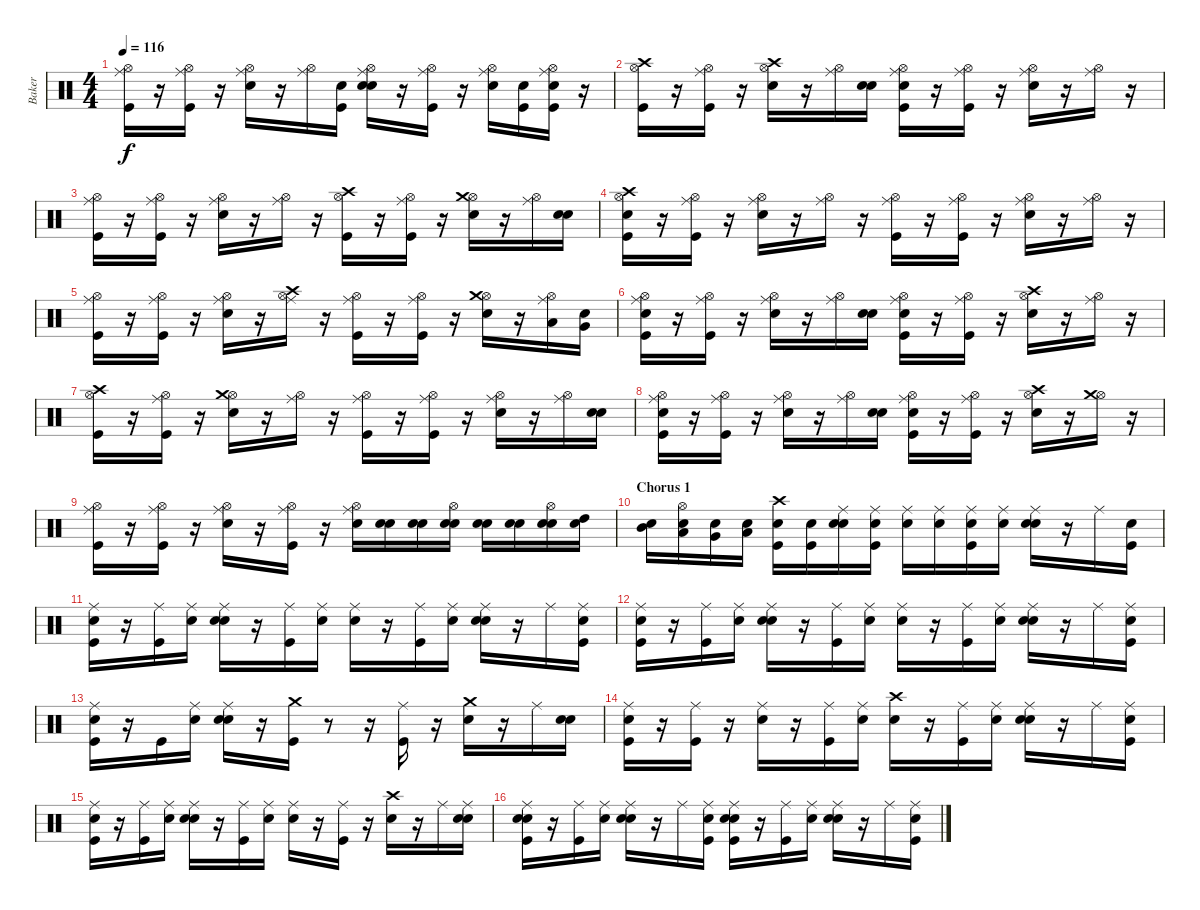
\track ("Baker" "Baker") {instrument percussion}
\staff {score}
\articulation defaults
\ts (4 4)
\tempo 116
\clef neutral
\ks c
("Kick (hit)" "Hi-Hat (open)" "Ride (middle)").16{dy f} r.16 ("Kick (hit)" "Hi-Hat (open)" "Ride (middle)").16 r.16 ("Electric Snare (hit)" "Hi-Hat (open)" "Ride (middle)").16 r.16 ("Hi-Hat (open)" "Ride (middle)").16 ("Snare (hit)" "Kick (hit)").16 ("Snare (hit)" "Electric Snare (hit)" "Hi-Hat (open)" "Ride (middle)").16 r.16 ("Kick (hit)" "Hi-Hat (open)" "Ride (middle)").16 r.16 ("Electric Snare (hit)" "Hi-Hat (open)" "Ride (middle)").16 ("Snare (hit)" "Kick (hit)").16 ("Snare (hit)" "Kick (hit)" "Hi-Hat (open)" "Ride (middle)").16 r.16 |
("Kick (hit)" "Hi-Hat (open)" "Crash high (hit)").16 r.16 ("Kick (hit)" "Hi-Hat (open)" "Ride (middle)").16 r.16 ("Electric Snare (hit)" "Hi-Hat (open)" "Crash high (hit)").16 r.16 ("Hi-Hat (open)" "Ride (middle)").16 ("Snare (hit)" "Electric Snare (hit)").16 ("Snare (hit)" "Kick (hit)" "Hi-Hat (open)" "Ride (middle)").16 r.16 ("Kick (hit)" "Hi-Hat (open)" "Ride (middle)").16 r.16 ("Electric Snare (hit)" "Hi-Hat (open)" "Ride (middle)").16 r.16 ("Hi-Hat (open)" "Ride (middle)").16 r.16 |
("Kick (hit)" "Hi-Hat (open)" "Ride (middle)").16 r.16 ("Kick (hit)" "Hi-Hat (open)" "Ride (middle)").16 r.16 ("Electric Snare (hit)" "Hi-Hat (open)" "Ride (middle)").16 r.16 ("Hi-Hat (open)" "Ride (middle)").16 r.16 ("Kick (hit)" "Hi-Hat (open)" "Crash high (hit)").16 r.16 ("Kick (hit)" "Hi-Hat (open)" "Ride (middle)").16 r.16 ("Electric Snare (hit)" "Hi-Hat (open)" "Crash medium (hit)").16 r.16 ("Hi-Hat (open)" "Ride (middle)").16 ("Snare (hit)" "Electric Snare (hit)").16 |
("Snare (hit)" "Kick (hit)" "Hi-Hat (open)" "Crash high (hit)").16 r.16 ("Kick (hit)" "Hi-Hat (open)" "Ride (middle)").16 r.16 ("Electric Snare (hit)" "Hi-Hat (open)" "Ride (middle)").16 r.16 ("Hi-Hat (open)" "Ride (middle)").16 r.16 ("Kick (hit)" "Hi-Hat (open)" "Ride (middle)").16 r.16 ("Kick (hit)" "Hi-Hat (open)" "Ride (middle)").16 r.16 ("Electric Snare (hit)" "Hi-Hat (open)" "Ride (middle)").16 r.16 ("Hi-Hat (open)" "Ride (middle)").16 r.16 |
("Kick (hit)" "Hi-Hat (open)" "Ride (middle)").16 r.16 ("Kick (hit)" "Hi-Hat (open)" "Ride (middle)").16 r.16 ("Electric Snare (hit)" "Hi-Hat (open)" "Ride (middle)").16 r.16 ("Hi-Hat (open)" "Crash high (hit)" "Ride (middle)").16 r.16 ("Kick (hit)" "Hi-Hat (open)" "Ride (middle)").16 r.16 ("Kick (hit)" "Hi-Hat (open)" "Ride (middle)").16 r.16 ("Electric Snare (hit)" "Hi-Hat (open)" "Crash medium (hit)").16 r.16 ("Low Tom (hit)" "Hi-Hat (open)" "Ride (middle)").16 ("Snare (hit)" "Very Low Tom (hit)").16 |
("Snare (hit)" "Kick (hit)" "Hi-Hat (open)" "Ride (middle)").16 r.16 ("Kick (hit)" "Hi-Hat (open)" "Ride (middle)").16 r.16 ("Electric Snare (hit)" "Hi-Hat (open)" "Ride (middle)").16 r.16 ("Hi-Hat (open)" "Ride (middle)").16 ("Snare (hit)" "Electric Snare (hit)").16 ("Snare (hit)" "Kick (hit)" "Hi-Hat (open)" "Ride (middle)").16 r.16 ("Kick (hit)" "Hi-Hat (open)" "Ride (middle)").16 r.16 ("Electric Snare (hit)" "Hi-Hat (open)" "Crash high (hit)").16 r.16 ("Hi-Hat (open)" "Ride (middle)").16 r.16 |
("Kick (hit)" "Hi-Hat (open)" "Crash high (hit)").16 r.16 ("Kick (hit)" "Hi-Hat (open)" "Ride (middle)").16 r.16 ("Electric Snare (hit)" "Hi-Hat (open)" "Crash medium (hit)").16 r.16 ("Hi-Hat (open)" "Ride (middle)").16 r.16 ("Kick (hit)" "Hi-Hat (open)" "Ride (middle)").16 r.16 ("Kick (hit)" "Hi-Hat (open)" "Ride (middle)").16 r.16 ("Electric Snare (hit)" "Hi-Hat (open)" "Ride (middle)").16 r.16 ("Hi-Hat (open)" "Ride (middle)").16 ("Snare (hit)" "Electric Snare (hit)").16 |
("Snare (hit)" "Kick (hit)" "Hi-Hat (open)" "Ride (middle)").16 r.16 ("Kick (hit)" "Hi-Hat (open)" "Ride (middle)").16 r.16 ("Electric Snare (hit)" "Hi-Hat (open)" "Ride (middle)").16 r.16 ("Hi-Hat (open)" "Ride (middle)").16 ("Snare (hit)" "Electric Snare (hit)").16 ("Snare (hit)" "Kick (hit)" "Hi-Hat (open)" "Ride (middle)").16 r.16 ("Kick (hit)" "Hi-Hat (open)" "Ride (middle)").16 r.16 ("Electric Snare (hit)" "Hi-Hat (open)" "Crash high (hit)").16 r.16 ("Hi-Hat (open)" "Crash medium (hit)").16 r.16 |
("Kick (hit)" "Hi-Hat (open)" "Ride (middle)").16 r.16 ("Kick (hit)" "Hi-Hat (open)" "Ride (middle)").16 r.16 ("Electric Snare (hit)" "Hi-Hat (open)" "Ride (middle)").16 r.16 ("Kick (hit)" "Hi-Hat (open)" "Ride (middle)").16 r.16 ("Electric Snare (hit)" "Hi-Hat (open)" "Ride (middle)").16 ("Snare (hit)" "Electric Snare (hit)").16 ("Snare (hit)" "Electric Snare (hit)").16 ("Snare (hit)" "Electric Snare (hit)" "Hi-Hat (open)").16 ("Snare (hit)" "Electric Snare (hit)").16 ("Snare (hit)" "Electric Snare (hit)").16 ("Snare (hit)" "Electric Snare (hit)" "Hi-Hat (open)").16 ("Snare (hit)" "High Tom (hit)").16 |
\section ("" "Chorus 1")
("Snare (hit)" "Mid Tom (hit)").16 ("Snare (hit)" "Low Tom (hit)" "Hi-Hat (open)").16 ("Snare (hit)" "Very Low Tom (hit)").16 ("Snare (hit)" "Low Floor Tom (hit)").16 ("Snare (hit)" "Crash high (hit)" "Kick (hit)").16 ("Snare (hit)" "Kick (hit)").16 ("Snare (hit)" "Electric Snare (hit)" "Ride (middle)").16 ("Snare (hit)" "Kick (hit)" "Ride (middle)").16 ("Snare (hit)" "Ride (middle)").16 ("Snare (hit)" "Ride (middle)").16 ("Snare (hit)" "Kick (hit)" "Ride (middle)").16 ("Snare (hit)" "Ride (middle)").16 ("Snare (hit)" "Electric Snare (hit)" "Ride (middle)").16 r.16 "Ride (middle)".16 ("Snare (hit)" "Kick (hit)").16 |
("Snare (hit)" "Kick (hit)" "Ride (middle)").16 r.16 ("Kick (hit)" "Ride (middle)").16 ("Snare (hit)" "Ride (middle)").16 ("Snare (hit)" "Electric Snare (hit)" "Ride (middle)").16 r.16 ("Kick (hit)" "Ride (middle)").16 ("Snare (hit)" "Ride (middle)").16 ("Snare (hit)" "Ride (middle)").16 r.16 ("Kick (hit)" "Ride (middle)").16 ("Snare (hit)" "Ride (middle)").16 ("Snare (hit)" "Electric Snare (hit)" "Ride (middle)").16 r.16 "Ride (middle)".16 ("Snare (hit)" "Kick (hit)" "Ride (middle)").16 |
("Snare (hit)" "Kick (hit)" "Ride (middle)").16 r.16 ("Kick (hit)" "Ride (middle)").16 ("Snare (hit)" "Ride (middle)").16 ("Snare (hit)" "Electric Snare (hit)" "Ride (middle)").16 r.16 ("Kick (hit)" "Ride (middle)").16 ("Snare (hit)" "Ride (middle)").16 ("Snare (hit)" "Ride (middle)").16 r.16 ("Kick (hit)" "Ride (middle)").16 ("Snare (hit)" "Ride (middle)").16 ("Snare (hit)" "Electric Snare (hit)" "Ride (middle)").16 r.16 "Ride (middle)".16 ("Snare (hit)" "Kick (hit)" "Ride (middle)").16 |
("Snare (hit)" "Kick (hit)" "Ride (middle)").16 r.16 "Kick (hit)".16 ("Snare (hit)" "Ride (middle)").16 ("Snare (hit)" "Electric Snare (hit)" "Ride (middle)").16 r.16 ("Kick (hit)" "Crash medium (hit)").16 r.8 r.16 ("Kick (hit)" "Ride (middle)").16 r.16 ("Electric Snare (hit)" "Crash medium (hit)").16 r.16 "Ride (middle)".16 ("Snare (hit)" "Electric Snare (hit)").16 |
("Snare (hit)" "Kick (hit)" "Ride (middle)").16 r.16 ("Kick (hit)" "Ride (middle)").16 r.16 ("Electric Snare (hit)" "Ride (middle)").16 r.16 ("Kick (hit)" "Ride (middle)").16 ("Snare (hit)" "Ride (middle)").16 ("Snare (hit)" "Crash high (hit)").16 r.16 ("Kick (hit)" "Ride (middle)").16 ("Snare (hit)" "Ride (middle)").16 ("Snare (hit)" "Electric Snare (hit)" "Ride (middle)").16 r.16 "Ride (middle)".16 ("Snare (hit)" "Kick (hit)" "Ride (middle)").16 |
("Snare (hit)" "Kick (hit)" "Ride (middle)").16 r.16 ("Kick (hit)" "Ride (middle)").16 ("Snare (hit)" "Ride (middle)").16 ("Snare (hit)" "Electric Snare (hit)" "Ride (middle)").16 r.16 ("Kick (hit)" "Ride (middle)").16 ("Snare (hit)" "Ride (middle)").16 ("Snare (hit)" "Ride (middle)").16 r.16 ("Kick (hit)" "Ride (middle)").16 r.16 ("Electric Snare (hit)" "Crash high (hit)").16 r.16 "Ride (middle)".16 ("Snare (hit)" "Electric Snare (hit)" "Ride (middle)").16 |
("Snare (hit)" "Kick (hit)" "Electric Snare (hit)" "Ride (middle)").16 r.16 ("Kick (hit)" "Ride (middle)").16 ("Snare (hit)" "Ride (middle)").16 ("Snare (hit)" "Electric Snare (hit)" "Ride (middle)").16 r.16 "Ride (middle)".16 ("Snare (hit)" "Kick (hit)" "Ride (middle)").16 ("Snare (hit)" "Kick (hit)" "Electric Snare (hit)" "Ride (middle)").16 r.16 ("Kick (hit)" "Ride (middle)").16 ("Snare (hit)" "Ride (middle)").16 ("Snare (hit)" "Electric Snare (hit)" "Ride (middle)").16 r.16 "Ride (middle)".16 ("Snare (hit)" "Kick (hit)" "Ride (middle)").16
